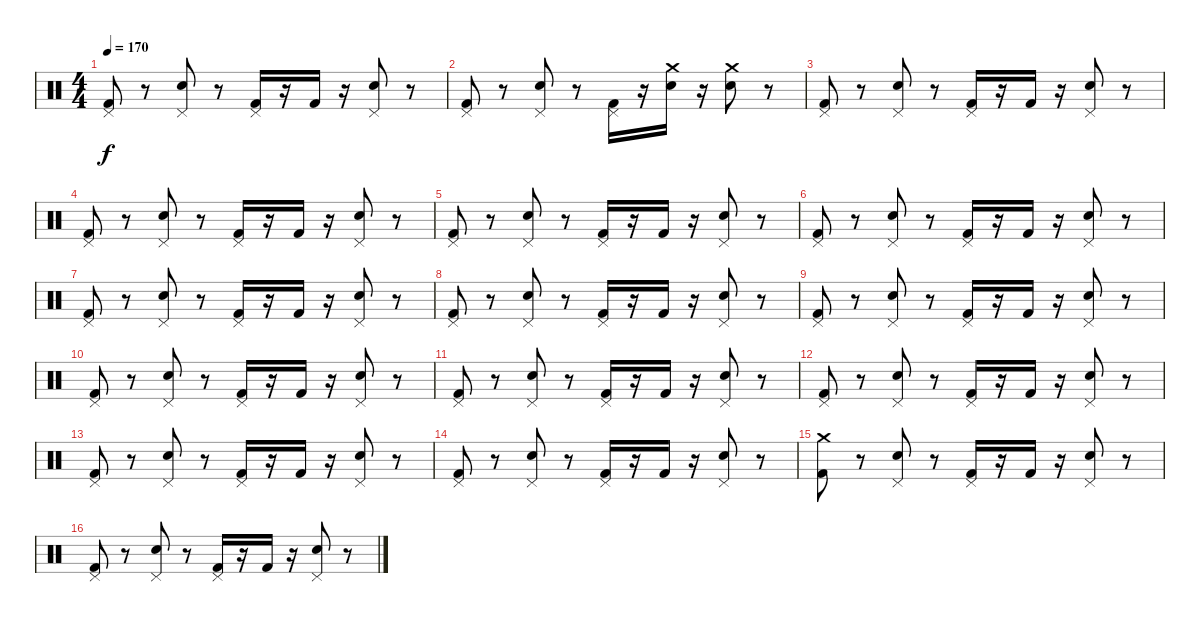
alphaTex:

\track "" {instrument percussion}
\staff {score}
\articulation defaults
\ts (4 4)
\tempo 170
\clef neutral
\ks c
("Kick (hit) 2" "Pedal Hi-Hat (hit)").8{dy f} r.8 ("Electric Snare (hit)" "Pedal Hi-Hat (hit)").8 r.8 ("Kick (hit) 2" "Pedal Hi-Hat (hit)").16 r.16 "Kick (hit) 2".16 r.16 ("Electric Snare (hit)" "Pedal Hi-Hat (hit)").8 r.8 |
("Kick (hit) 2" "Pedal Hi-Hat (hit)").8 r.8 ("Electric Snare (hit)" "Pedal Hi-Hat (hit)").8 r.8 ("Kick (hit) 2" "Pedal Hi-Hat (hit)").16 r.16 ("Electric Snare (hit)" "Crash medium (hit)").16 r.16 ("Electric Snare (hit)" "Crash medium (hit)").8 r.8 |
("Kick (hit) 2" "Pedal Hi-Hat (hit)").8 r.8 ("Electric Snare (hit)" "Pedal Hi-Hat (hit)").8 r.8 ("Kick (hit) 2" "Pedal Hi-Hat (hit)").16 r.16 "Kick (hit) 2".16 r.16 ("Electric Snare (hit)" "Pedal Hi-Hat (hit)").8 r.8 |
("Kick (hit) 2" "Pedal Hi-Hat (hit)").8 r.8 ("Electric Snare (hit)" "Pedal Hi-Hat (hit)").8 r.8 ("Kick (hit) 2" "Pedal Hi-Hat (hit)").16 r.16 "Kick (hit) 2".16 r.16 ("Electric Snare (hit)" "Pedal Hi-Hat (hit)").8 r.8 |
("Kick (hit) 2" "Pedal Hi-Hat (hit)").8 r.8 ("Electric Snare (hit)" "Pedal Hi-Hat (hit)").8 r.8 ("Kick (hit) 2" "Pedal Hi-Hat (hit)").16 r.16 "Kick (hit) 2".16 r.16 ("Electric Snare (hit)" "Pedal Hi-Hat (hit)").8 r.8 |
("Kick (hit) 2" "Pedal Hi-Hat (hit)").8 r.8 ("Electric Snare (hit)" "Pedal Hi-Hat (hit)").8 r.8 ("Kick (hit) 2" "Pedal Hi-Hat (hit)").16 r.16 "Kick (hit) 2".16 r.16 ("Electric Snare (hit)" "Pedal Hi-Hat (hit)").8 r.8 |
("Kick (hit) 2" "Pedal Hi-Hat (hit)").8 r.8 ("Electric Snare (hit)" "Pedal Hi-Hat (hit)").8 r.8 ("Kick (hit) 2" "Pedal Hi-Hat (hit)").16 r.16 "Kick (hit) 2".16 r.16 ("Electric Snare (hit)" "Pedal Hi-Hat (hit)").8 r.8 |
("Kick (hit) 2" "Pedal Hi-Hat (hit)").8 r.8 ("Electric Snare (hit)" "Pedal Hi-Hat (hit)").8 r.8 ("Kick (hit) 2" "Pedal Hi-Hat (hit)").16 r.16 "Kick (hit) 2".16 r.16 ("Electric Snare (hit)" "Pedal Hi-Hat (hit)").8 r.8 |
("Kick (hit) 2" "Pedal Hi-Hat (hit)").8 r.8 ("Electric Snare (hit)" "Pedal Hi-Hat (hit)").8 r.8 ("Kick (hit) 2" "Pedal Hi-Hat (hit)").16 r.16 "Kick (hit) 2".16 r.16 ("Electric Snare (hit)" "Pedal Hi-Hat (hit)").8 r.8 |
("Kick (hit) 2" "Pedal Hi-Hat (hit)").8 r.8 ("Electric Snare (hit)" "Pedal Hi-Hat (hit)").8 r.8 ("Kick (hit) 2" "Pedal Hi-Hat (hit)").16 r.16 "Kick (hit) 2".16 r.16 ("Electric Snare (hit)" "Pedal Hi-Hat (hit)").8 r.8 |
("Kick (hit) 2" "Pedal Hi-Hat (hit)").8 r.8 ("Electric Snare (hit)" "Pedal Hi-Hat (hit)").8 r.8 ("Kick (hit) 2" "Pedal Hi-Hat (hit)").16 r.16 "Kick (hit) 2".16 r.16 ("Electric Snare (hit)" "Pedal Hi-Hat (hit)").8 r.8 |
("Kick (hit) 2" "Pedal Hi-Hat (hit)").8 r.8 ("Electric Snare (hit)" "Pedal Hi-Hat (hit)").8 r.8 ("Kick (hit) 2" "Pedal Hi-Hat (hit)").16 r.16 "Kick (hit) 2".16 r.16 ("Electric Snare (hit)" "Pedal Hi-Hat (hit)").8 r.8 |
("Kick (hit) 2" "Pedal Hi-Hat (hit)").8 r.8 ("Electric Snare (hit)" "Pedal Hi-Hat (hit)").8 r.8 ("Kick (hit) 2" "Pedal Hi-Hat (hit)").16 r.16 "Kick (hit) 2".16 r.16 ("Electric Snare (hit)" "Pedal Hi-Hat (hit)").8 r.8 |
("Kick (hit) 2" "Pedal Hi-Hat (hit)").8 r.8 ("Electric Snare (hit)" "Pedal Hi-Hat (hit)").8 r.8 ("Kick (hit) 2" "Pedal Hi-Hat (hit)").16 r.16 "Kick (hit) 2".16 r.16 ("Electric Snare (hit)" "Pedal Hi-Hat (hit)").8 r.8 |
("Kick (hit) 2" "Crash medium (hit)").8 r.8 ("Electric Snare (hit)" "Pedal Hi-Hat (hit)").8 r.8 ("Kick (hit) 2" "Pedal Hi-Hat (hit)").16 r.16 "Kick (hit) 2".16 r.16 ("Electric Snare (hit)" "Pedal Hi-Hat (hit)").8 r.8 |
("Kick (hit) 2" "Pedal Hi-Hat (hit)").8 r.8 ("Electric Snare (hit)" "Pedal Hi-Hat (hit)").8 r.8 ("Kick (hit) 2" "Pedal Hi-Hat (hit)").16 r.16 "Kick (hit) 2".16 r.16 ("Electric Snare (hit)" "Pedal Hi-Hat (hit)").8 r.8
